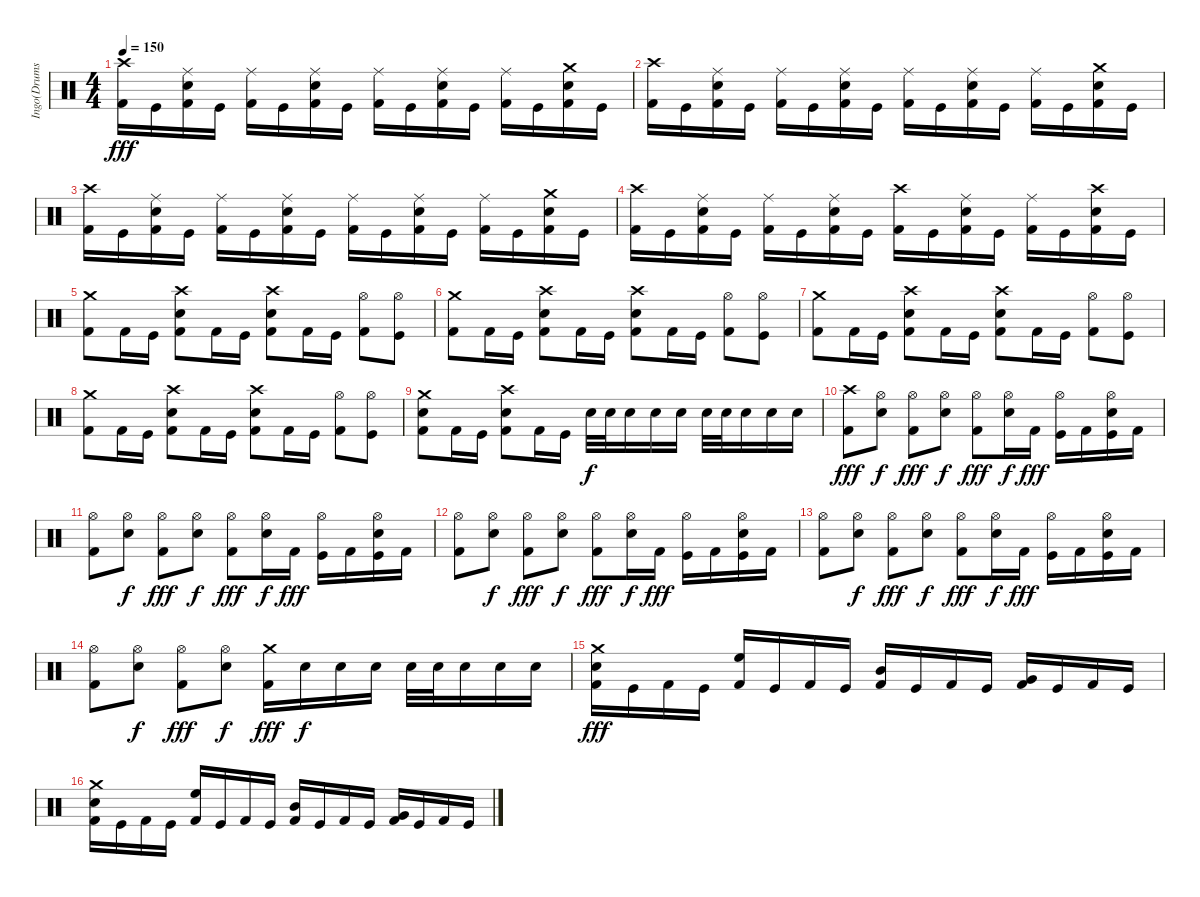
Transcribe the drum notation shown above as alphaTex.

\track ("Ingo(Drums)" "Ingo(Drums") {instrument percussion}
\staff {score}
\articulation defaults
\ts (4 4)
\tempo 150
\clef neutral
\ks c
("Crash high (hit)" "Kick (hit) 2").16{dy fff} "Kick (hit)".16 ("Ride (middle)" "Electric Snare (hit)" "Kick (hit) 2").16 "Kick (hit)".16 ("Ride (middle)" "Kick (hit) 2").16 "Kick (hit)".16 ("Ride (middle)" "Electric Snare (hit)" "Kick (hit) 2").16 "Kick (hit)".16 ("Ride (middle)" "Kick (hit) 2").16 "Kick (hit)".16 ("Ride (middle)" "Electric Snare (hit)" "Kick (hit) 2").16 "Kick (hit)".16 ("Ride (middle)" "Kick (hit) 2").16 "Kick (hit)".16 ("Crash medium (hit)" "Electric Snare (hit)" "Kick (hit) 2").16 "Kick (hit)".16 |
("Crash high (hit)" "Kick (hit) 2").16 "Kick (hit)".16 ("Ride (middle)" "Electric Snare (hit)" "Kick (hit) 2").16 "Kick (hit)".16 ("Ride (middle)" "Kick (hit) 2").16 "Kick (hit)".16 ("Ride (middle)" "Electric Snare (hit)" "Kick (hit) 2").16 "Kick (hit)".16 ("Ride (middle)" "Kick (hit) 2").16 "Kick (hit)".16 ("Ride (middle)" "Electric Snare (hit)" "Kick (hit) 2").16 "Kick (hit)".16 ("Ride (middle)" "Kick (hit) 2").16 "Kick (hit)".16 ("Crash medium (hit)" "Electric Snare (hit)" "Kick (hit) 2").16 "Kick (hit)".16 |
("Crash high (hit)" "Kick (hit) 2").16 "Kick (hit)".16 ("Ride (middle)" "Electric Snare (hit)" "Kick (hit) 2").16 "Kick (hit)".16 ("Ride (middle)" "Kick (hit) 2").16 "Kick (hit)".16 ("Ride (middle)" "Electric Snare (hit)" "Kick (hit) 2").16 "Kick (hit)".16 ("Ride (middle)" "Kick (hit) 2").16 "Kick (hit)".16 ("Ride (middle)" "Electric Snare (hit)" "Kick (hit) 2").16 "Kick (hit)".16 ("Ride (middle)" "Kick (hit) 2").16 "Kick (hit)".16 ("Crash medium (hit)" "Electric Snare (hit)" "Kick (hit) 2").16 "Kick (hit)".16 |
("Crash high (hit)" "Kick (hit) 2").16 "Kick (hit)".16 ("Ride (middle)" "Electric Snare (hit)" "Kick (hit) 2").16 "Kick (hit)".16 ("Ride (middle)" "Kick (hit) 2").16 "Kick (hit)".16 ("Ride (middle)" "Electric Snare (hit)" "Kick (hit) 2").16 "Kick (hit)".16 ("Crash high (hit)" "Kick (hit) 2").16 "Kick (hit)".16 ("Ride (middle)" "Electric Snare (hit)" "Kick (hit) 2").16 "Kick (hit)".16 ("Ride (middle)" "Kick (hit) 2").16 "Kick (hit)".16 ("Crash high (hit)" "Electric Snare (hit)" "Kick (hit) 2").16 "Kick (hit)".16 |
("Crash medium (hit)" "Kick (hit) 2").8 "Kick (hit) 2".16 "Kick (hit)".16 ("Crash high (hit)" "Electric Snare (hit)" "Kick (hit) 2").8 "Kick (hit) 2".16 "Kick (hit)".16 ("Crash high (hit)" "Electric Snare (hit)" "Kick (hit) 2").8 "Kick (hit) 2".16 "Kick (hit)".16 ("Hi-Hat (open)" "Kick (hit) 2").8 ("Hi-Hat (open)" "Kick (hit)").8 |
("Crash medium (hit)" "Kick (hit) 2").8 "Kick (hit) 2".16 "Kick (hit)".16 ("Crash high (hit)" "Electric Snare (hit)" "Kick (hit) 2").8 "Kick (hit) 2".16 "Kick (hit)".16 ("Crash high (hit)" "Electric Snare (hit)" "Kick (hit) 2").8 "Kick (hit) 2".16 "Kick (hit)".16 ("Hi-Hat (open)" "Kick (hit) 2").8 ("Hi-Hat (open)" "Kick (hit)").8 |
("Crash medium (hit)" "Kick (hit) 2").8 "Kick (hit) 2".16 "Kick (hit)".16 ("Crash high (hit)" "Electric Snare (hit)" "Kick (hit) 2").8 "Kick (hit) 2".16 "Kick (hit)".16 ("Crash high (hit)" "Electric Snare (hit)" "Kick (hit) 2").8 "Kick (hit) 2".16 "Kick (hit)".16 ("Hi-Hat (open)" "Kick (hit) 2").8 ("Hi-Hat (open)" "Kick (hit)").8 |
("Crash medium (hit)" "Kick (hit) 2").8 "Kick (hit) 2".16 "Kick (hit)".16 ("Crash high (hit)" "Electric Snare (hit)" "Kick (hit) 2").8 "Kick (hit) 2".16 "Kick (hit)".16 ("Crash high (hit)" "Electric Snare (hit)" "Kick (hit) 2").8 "Kick (hit) 2".16 "Kick (hit)".16 ("Hi-Hat (open)" "Kick (hit) 2").8 ("Hi-Hat (open)" "Kick (hit)").8 |
("Crash medium (hit)" "Electric Snare (hit)" "Kick (hit) 2").8 "Kick (hit) 2".16 "Kick (hit)".16 ("Crash high (hit)" "Electric Snare (hit)" "Kick (hit) 2").8 "Kick (hit) 2".16 "Kick (hit)".16 "Electric Snare (hit)".32{dy f} "Electric Snare (hit)".32 "Electric Snare (hit)".16 "Electric Snare (hit)".16 "Electric Snare (hit)".16 "Electric Snare (hit)".32 "Electric Snare (hit)".32 "Electric Snare (hit)".16 "Electric Snare (hit)".16 "Electric Snare (hit)".16 |
("Crash high (hit)" "Kick (hit) 2").8{dy fff} ("Hi-Hat (open)" "Electric Snare (hit)").8{dy f} ("Hi-Hat (open)" "Kick (hit) 2").8{dy fff} ("Hi-Hat (open)" "Electric Snare (hit)").8{dy f} ("Hi-Hat (open)" "Kick (hit) 2").8{dy fff} ("Hi-Hat (open)" "Electric Snare (hit)").16{dy f} "Kick (hit) 2".16{dy fff} ("Hi-Hat (open)" "Kick (hit)").16 "Kick (hit) 2".16 ("Hi-Hat (open)" "Electric Snare (hit)" "Kick (hit)").16 "Kick (hit) 2".16 |
("Hi-Hat (open)" "Kick (hit) 2").8 ("Hi-Hat (open)" "Electric Snare (hit)").8{dy f} ("Hi-Hat (open)" "Kick (hit) 2").8{dy fff} ("Hi-Hat (open)" "Electric Snare (hit)").8{dy f} ("Hi-Hat (open)" "Kick (hit) 2").8{dy fff} ("Hi-Hat (open)" "Electric Snare (hit)").16{dy f} "Kick (hit) 2".16{dy fff} ("Hi-Hat (open)" "Kick (hit)").16 "Kick (hit) 2".16 ("Hi-Hat (open)" "Electric Snare (hit)" "Kick (hit)").16 "Kick (hit) 2".16 |
("Hi-Hat (open)" "Kick (hit) 2").8 ("Hi-Hat (open)" "Electric Snare (hit)").8{dy f} ("Hi-Hat (open)" "Kick (hit) 2").8{dy fff} ("Hi-Hat (open)" "Electric Snare (hit)").8{dy f} ("Hi-Hat (open)" "Kick (hit) 2").8{dy fff} ("Hi-Hat (open)" "Electric Snare (hit)").16{dy f} "Kick (hit) 2".16{dy fff} ("Hi-Hat (open)" "Kick (hit)").16 "Kick (hit) 2".16 ("Hi-Hat (open)" "Electric Snare (hit)" "Kick (hit)").16 "Kick (hit) 2".16 |
("Hi-Hat (open)" "Kick (hit) 2").8 ("Hi-Hat (open)" "Electric Snare (hit)").8{dy f} ("Hi-Hat (open)" "Kick (hit) 2").8{dy fff} ("Hi-Hat (open)" "Electric Snare (hit)").8{dy f} ("Hi-Hat (open)" "Kick (hit) 2").8{dy fff} ("Hi-Hat (open)" "Electric Snare (hit)").16{dy f} "Kick (hit) 2".16{dy fff} ("Hi-Hat (open)" "Kick (hit)").16 "Kick (hit) 2".16 ("Hi-Hat (open)" "Electric Snare (hit)" "Kick (hit)").16 "Kick (hit) 2".16 |
("Hi-Hat (open)" "Kick (hit) 2").8 ("Hi-Hat (open)" "Electric Snare (hit)").8{dy f} ("Hi-Hat (open)" "Kick (hit) 2").8{dy fff} ("Hi-Hat (open)" "Electric Snare (hit)").8{dy f} ("Crash medium (hit)" "Kick (hit) 2").16{dy fff} "Electric Snare (hit)".16{dy f} "Electric Snare (hit)".16 "Electric Snare (hit)".16 "Electric Snare (hit)".32 "Electric Snare (hit)".32 "Electric Snare (hit)".16 "Electric Snare (hit)".16 "Electric Snare (hit)".16 |
("Crash medium (hit)" "Electric Snare (hit)" "Kick (hit) 2").16{dy fff} "Kick (hit)".16 "Kick (hit) 2".16 "Kick (hit)".16 ("High Floor Tom (hit)" "Kick (hit) 2").16 "Kick (hit)".16 "Kick (hit) 2".16 "Kick (hit)".16 ("Mid Tom (hit)" "Kick (hit) 2").16 "Kick (hit)".16 "Kick (hit) 2".16 "Kick (hit)".16 ("Very Low Tom (hit)" "Kick (hit) 2").16 "Kick (hit)".16 "Kick (hit) 2".16 "Kick (hit)".16 |
("Crash medium (hit)" "Electric Snare (hit)" "Kick (hit) 2").16{volume 15} "Kick (hit)".16 "Kick (hit) 2".16 "Kick (hit)".16 ("High Floor Tom (hit)" "Kick (hit) 2").16{volume 14} "Kick (hit)".16 "Kick (hit) 2".16 "Kick (hit)".16 ("Mid Tom (hit)" "Kick (hit) 2").16{volume 13} "Kick (hit)".16 "Kick (hit) 2".16 "Kick (hit)".16 ("Very Low Tom (hit)" "Kick (hit) 2").16{volume 12} "Kick (hit)".16 "Kick (hit) 2".16 "Kick (hit)".16
